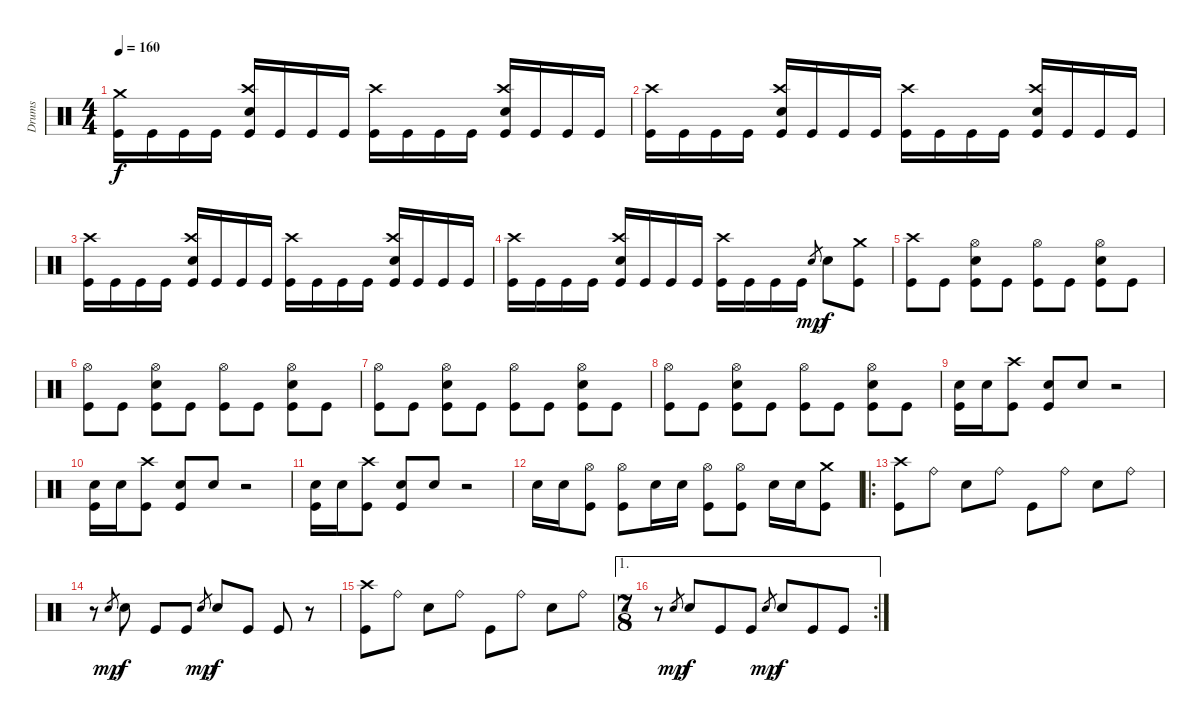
\track ("Drums" "Drums") {instrument percussion}
\staff {score}
\articulation defaults
\ts (4 4)
\tempo 160
\clef neutral
\ks c
("Crash medium (hit)" "Kick (hit)").16{dy f} "Kick (hit)".16 "Kick (hit)".16 "Kick (hit)".16 ("Crash high (hit)" "Electric Snare (hit)" "Kick (hit)").16 "Kick (hit)".16 "Kick (hit)".16 "Kick (hit)".16 ("Crash high (hit)" "Kick (hit)").16 "Kick (hit)".16 "Kick (hit)".16 "Kick (hit)".16 ("Crash high (hit)" "Electric Snare (hit)" "Kick (hit)").16 "Kick (hit)".16 "Kick (hit)".16 "Kick (hit)".16 |
("Crash high (hit)" "Kick (hit)").16 "Kick (hit)".16 "Kick (hit)".16 "Kick (hit)".16 ("Crash high (hit)" "Electric Snare (hit)" "Kick (hit)").16 "Kick (hit)".16 "Kick (hit)".16 "Kick (hit)".16 ("Crash high (hit)" "Kick (hit)").16 "Kick (hit)".16 "Kick (hit)".16 "Kick (hit)".16 ("Crash high (hit)" "Electric Snare (hit)" "Kick (hit)").16 "Kick (hit)".16 "Kick (hit)".16 "Kick (hit)".16 |
("Crash high (hit)" "Kick (hit)").16 "Kick (hit)".16 "Kick (hit)".16 "Kick (hit)".16 ("Crash high (hit)" "Electric Snare (hit)" "Kick (hit)").16 "Kick (hit)".16 "Kick (hit)".16 "Kick (hit)".16 ("Crash high (hit)" "Kick (hit)").16 "Kick (hit)".16 "Kick (hit)".16 "Kick (hit)".16 ("Crash high (hit)" "Electric Snare (hit)" "Kick (hit)").16 "Kick (hit)".16 "Kick (hit)".16 "Kick (hit)".16 |
("Crash high (hit)" "Kick (hit)").16 "Kick (hit)".16 "Kick (hit)".16 "Kick (hit)".16 ("Crash high (hit)" "Electric Snare (hit)" "Kick (hit)").16 "Kick (hit)".16 "Kick (hit)".16 "Kick (hit)".16 ("Crash high (hit)" "Kick (hit)").16 "Kick (hit)".16 "Kick (hit)".16 "Kick (hit)".16 "Electric Snare (hit)".8{gr dy mp} "Electric Snare (hit)".8{dy f} ("Crash medium (hit)" "Kick (hit)").8 |
("Crash high (hit)" "Kick (hit)").8 "Kick (hit)".8 ("Hi-Hat (open)" "Electric Snare (hit)" "Kick (hit)").8 "Kick (hit)".8 ("Hi-Hat (open)" "Kick (hit)").8 "Kick (hit)".8 ("Hi-Hat (open)" "Electric Snare (hit)" "Kick (hit)").8 "Kick (hit)".8 |
("Hi-Hat (open)" "Kick (hit)").8 "Kick (hit)".8 ("Hi-Hat (open)" "Electric Snare (hit)" "Kick (hit)").8 "Kick (hit)".8 ("Hi-Hat (open)" "Kick (hit)").8 "Kick (hit)".8 ("Hi-Hat (open)" "Electric Snare (hit)" "Kick (hit)").8 "Kick (hit)".8 |
("Hi-Hat (open)" "Kick (hit)").8 "Kick (hit)".8 ("Hi-Hat (open)" "Electric Snare (hit)" "Kick (hit)").8 "Kick (hit)".8 ("Hi-Hat (open)" "Kick (hit)").8 "Kick (hit)".8 ("Hi-Hat (open)" "Electric Snare (hit)" "Kick (hit)").8 "Kick (hit)".8 |
("Hi-Hat (open)" "Kick (hit)").8 "Kick (hit)".8 ("Hi-Hat (open)" "Electric Snare (hit)" "Kick (hit)").8 "Kick (hit)".8 ("Hi-Hat (open)" "Kick (hit)").8 "Kick (hit)".8 ("Hi-Hat (open)" "Electric Snare (hit)" "Kick (hit)").8 "Kick (hit)".8 |
("Electric Snare (hit)" "Kick (hit)").16 "Electric Snare (hit)".16 ("Crash high (hit)" "Kick (hit)").8 ("Electric Snare (hit)" "Kick (hit)").8 "Electric Snare (hit)".8 r.2 |
("Electric Snare (hit)" "Kick (hit)").16 "Electric Snare (hit)".16 ("Crash high (hit)" "Kick (hit)").8 ("Electric Snare (hit)" "Kick (hit)").8 "Electric Snare (hit)".8 r.2 |
("Electric Snare (hit)" "Kick (hit)").16 "Electric Snare (hit)".16 ("Crash high (hit)" "Kick (hit)").8 ("Electric Snare (hit)" "Kick (hit)").8 "Electric Snare (hit)".8 r.2 |
"Electric Snare (hit)".16 "Electric Snare (hit)".16 ("Hi-Hat (open)" "Kick (hit)").8 ("Hi-Hat (open)" "Kick (hit)").8 "Electric Snare (hit)".16 "Electric Snare (hit)".16 ("Hi-Hat (open)" "Kick (hit)").8 ("Hi-Hat (open)" "Kick (hit)").8 "Electric Snare (hit)".16 "Electric Snare (hit)".16 ("Crash medium (hit)" "Kick (hit)").8 |
\ro
("Crash high (hit)" "Kick (hit)").8 "Ride (bell)".8 "Electric Snare (hit)".8 "Ride (bell)".8 "Kick (hit)".8 "Ride (bell)".8 "Electric Snare (hit)".8 "Ride (bell)".8 |
r.8 "Electric Snare (hit)".8{gr dy mp} "Electric Snare (hit)".8{dy f} "Kick (hit)".8 "Kick (hit)".8 "Electric Snare (hit)".8{gr dy mp} "Electric Snare (hit)".8{dy f} "Kick (hit)".8 "Kick (hit)".8 r.8 |
("Crash high (hit)" "Kick (hit)").8 "Ride (bell)".8 "Electric Snare (hit)".8 "Ride (bell)".8 "Kick (hit)".8 "Ride (bell)".8 "Electric Snare (hit)".8 "Ride (bell)".8 |
\ae 1
\rc 2
\ts (7 8)
r.8 "Electric Snare (hit)".8{gr dy mp} "Electric Snare (hit)".8{dy f} "Kick (hit)".8 "Kick (hit)".8 "Electric Snare (hit)".8{gr dy mp} "Electric Snare (hit)".8{dy f} "Kick (hit)".8 "Kick (hit)".8
